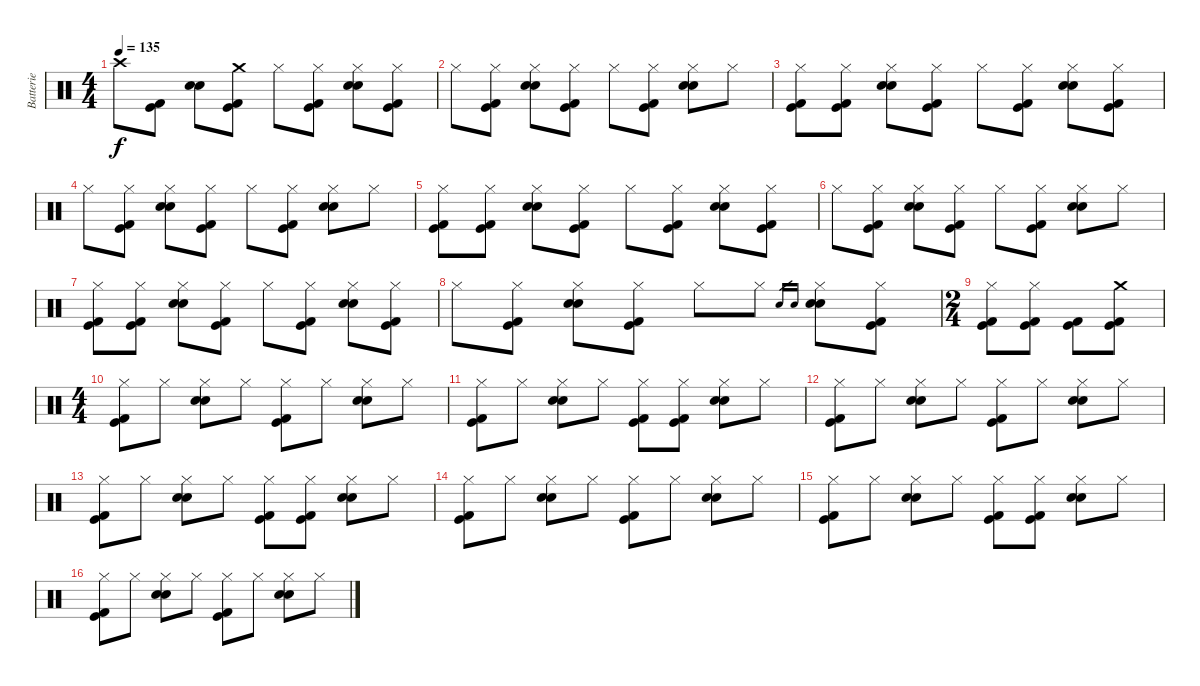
\track ("Batterie" "Batterie") {instrument percussion}
\staff {score}
\articulation defaults
\ts (4 4)
\tempo 135
\clef neutral
\ks c "Crash high (hit)".8{dy f}
("Kick (hit)" "Kick (hit) 2").8 ("Snare (hit) 2" "Electric Snare (hit)").8 ("Crash medium (hit)" "Kick (hit)" "Kick (hit) 2").8 "Hi-Hat (closed)".8 ("Hi-Hat (closed)" "Kick (hit)" "Kick (hit) 2").8 ("Hi-Hat (closed)" "Electric Snare (hit)" "Snare (hit) 2").8 ("Hi-Hat (closed)" "Kick (hit)" "Kick (hit) 2").8 |
"Hi-Hat (closed)".8 ("Hi-Hat (closed)" "Kick (hit)" "Kick (hit) 2").8 ("Hi-Hat (closed)" "Electric Snare (hit)" "Snare (hit) 2").8 ("Hi-Hat (closed)" "Kick (hit)" "Kick (hit) 2").8 "Hi-Hat (closed)".8 ("Hi-Hat (closed)" "Kick (hit)" "Kick (hit) 2").8 ("Hi-Hat (closed)" "Electric Snare (hit)" "Snare (hit) 2").8 "Hi-Hat (closed)".8 |
("Hi-Hat (closed)" "Kick (hit)" "Kick (hit) 2").8 ("Hi-Hat (closed)" "Kick (hit)" "Kick (hit) 2").8 ("Hi-Hat (closed)" "Snare (hit) 2" "Electric Snare (hit)").8 ("Hi-Hat (closed)" "Kick (hit)" "Kick (hit) 2").8 "Hi-Hat (closed)".8 ("Hi-Hat (closed)" "Kick (hit)" "Kick (hit) 2").8 ("Hi-Hat (closed)" "Snare (hit) 2" "Electric Snare (hit)").8 ("Hi-Hat (closed)" "Kick (hit)" "Kick (hit) 2").8 |
"Hi-Hat (closed)".8 ("Hi-Hat (closed)" "Kick (hit)" "Kick (hit) 2").8 ("Hi-Hat (closed)" "Electric Snare (hit)" "Snare (hit) 2").8 ("Hi-Hat (closed)" "Kick (hit)" "Kick (hit) 2").8 "Hi-Hat (closed)".8 ("Hi-Hat (closed)" "Kick (hit)" "Kick (hit) 2").8 ("Hi-Hat (closed)" "Electric Snare (hit)" "Snare (hit) 2").8 "Hi-Hat (closed)".8 |
("Hi-Hat (closed)" "Kick (hit)" "Kick (hit) 2").8 ("Hi-Hat (closed)" "Kick (hit)" "Kick (hit) 2").8 ("Hi-Hat (closed)" "Snare (hit) 2" "Electric Snare (hit)").8 ("Hi-Hat (closed)" "Kick (hit)" "Kick (hit) 2").8 "Hi-Hat (closed)".8 ("Hi-Hat (closed)" "Kick (hit)" "Kick (hit) 2").8 ("Hi-Hat (closed)" "Snare (hit) 2" "Electric Snare (hit)").8 ("Hi-Hat (closed)" "Kick (hit)" "Kick (hit) 2").8 |
"Hi-Hat (closed)".8 ("Hi-Hat (closed)" "Kick (hit)" "Kick (hit) 2").8 ("Hi-Hat (closed)" "Electric Snare (hit)" "Snare (hit) 2").8 ("Hi-Hat (closed)" "Kick (hit)" "Kick (hit) 2").8 "Hi-Hat (closed)".8 ("Hi-Hat (closed)" "Kick (hit)" "Kick (hit) 2").8 ("Hi-Hat (closed)" "Electric Snare (hit)" "Snare (hit) 2").8 "Hi-Hat (closed)".8 |
("Hi-Hat (closed)" "Kick (hit)" "Kick (hit) 2").8 ("Hi-Hat (closed)" "Kick (hit)" "Kick (hit) 2").8 ("Hi-Hat (closed)" "Snare (hit) 2" "Electric Snare (hit)").8 ("Hi-Hat (closed)" "Kick (hit)" "Kick (hit) 2").8 "Hi-Hat (closed)".8 ("Hi-Hat (closed)" "Kick (hit)" "Kick (hit) 2").8 ("Hi-Hat (closed)" "Snare (hit) 2" "Electric Snare (hit)").8 ("Hi-Hat (closed)" "Kick (hit)" "Kick (hit) 2").8 |
"Hi-Hat (closed)".8 ("Hi-Hat (closed)" "Kick (hit)" "Kick (hit) 2").8 ("Hi-Hat (closed)" "Electric Snare (hit)" "Snare (hit) 2").8 ("Hi-Hat (closed)" "Kick (hit)" "Kick (hit) 2").8 "Hi-Hat (closed)".8 "Hi-Hat (closed)".8 "Electric Snare (hit)".16{gr} "Snare (hit) 2".16{gr} ("Hi-Hat (closed)" "Electric Snare (hit)" "Snare (hit) 2").8 ("Hi-Hat (closed)" "Kick (hit)" "Kick (hit) 2").8 |
\ts (2 4)
("Hi-Hat (closed)" "Kick (hit)" "Kick (hit) 2").8 ("Hi-Hat (closed)" "Kick (hit)" "Kick (hit) 2").8 ("Kick (hit)" "Kick (hit) 2").8 ("Crash medium (hit)" "Kick (hit)" "Kick (hit) 2").8 |
\ts (4 4)
("Hi-Hat (closed)" "Kick (hit)" "Kick (hit) 2").8 "Hi-Hat (closed)".8 ("Hi-Hat (closed)" "Electric Snare (hit)" "Snare (hit) 2").8 "Hi-Hat (closed)".8 ("Hi-Hat (closed)" "Kick (hit)" "Kick (hit) 2").8 "Hi-Hat (closed)".8 ("Hi-Hat (closed)" "Snare (hit) 2" "Electric Snare (hit)").8 "Hi-Hat (closed)".8 |
("Hi-Hat (closed)" "Kick (hit)" "Kick (hit) 2").8 "Hi-Hat (closed)".8 ("Hi-Hat (closed)" "Electric Snare (hit)" "Snare (hit) 2").8 "Hi-Hat (closed)".8 ("Hi-Hat (closed)" "Kick (hit)" "Kick (hit) 2").8 ("Hi-Hat (closed)" "Kick (hit)" "Kick (hit) 2").8 ("Hi-Hat (closed)" "Electric Snare (hit)" "Snare (hit) 2").8 "Hi-Hat (closed)".8 |
("Hi-Hat (closed)" "Kick (hit)" "Kick (hit) 2").8 "Hi-Hat (closed)".8 ("Hi-Hat (closed)" "Electric Snare (hit)" "Snare (hit) 2").8 "Hi-Hat (closed)".8 ("Hi-Hat (closed)" "Kick (hit)" "Kick (hit) 2").8 "Hi-Hat (closed)".8 ("Hi-Hat (closed)" "Snare (hit) 2" "Electric Snare (hit)").8 "Hi-Hat (closed)".8 |
("Hi-Hat (closed)" "Kick (hit)" "Kick (hit) 2").8 "Hi-Hat (closed)".8 ("Hi-Hat (closed)" "Electric Snare (hit)" "Snare (hit) 2").8 "Hi-Hat (closed)".8 ("Hi-Hat (closed)" "Kick (hit)" "Kick (hit) 2").8 ("Hi-Hat (closed)" "Kick (hit)" "Kick (hit) 2").8 ("Hi-Hat (closed)" "Electric Snare (hit)" "Snare (hit) 2").8 "Hi-Hat (closed)".8 |
("Hi-Hat (closed)" "Kick (hit)" "Kick (hit) 2").8 "Hi-Hat (closed)".8 ("Hi-Hat (closed)" "Electric Snare (hit)" "Snare (hit) 2").8 "Hi-Hat (closed)".8 ("Hi-Hat (closed)" "Kick (hit)" "Kick (hit) 2").8 "Hi-Hat (closed)".8 ("Hi-Hat (closed)" "Snare (hit) 2" "Electric Snare (hit)").8 "Hi-Hat (closed)".8 |
("Hi-Hat (closed)" "Kick (hit)" "Kick (hit) 2").8 "Hi-Hat (closed)".8 ("Hi-Hat (closed)" "Electric Snare (hit)" "Snare (hit) 2").8 "Hi-Hat (closed)".8 ("Hi-Hat (closed)" "Kick (hit)" "Kick (hit) 2").8 ("Hi-Hat (closed)" "Kick (hit)" "Kick (hit) 2").8 ("Hi-Hat (closed)" "Electric Snare (hit)" "Snare (hit) 2").8 "Hi-Hat (closed)".8 |
("Hi-Hat (closed)" "Kick (hit)" "Kick (hit) 2").8 "Hi-Hat (closed)".8 ("Hi-Hat (closed)" "Electric Snare (hit)" "Snare (hit) 2").8 "Hi-Hat (closed)".8 ("Hi-Hat (closed)" "Kick (hit)" "Kick (hit) 2").8 "Hi-Hat (closed)".8 ("Hi-Hat (closed)" "Snare (hit) 2" "Electric Snare (hit)").8 "Hi-Hat (closed)".8
